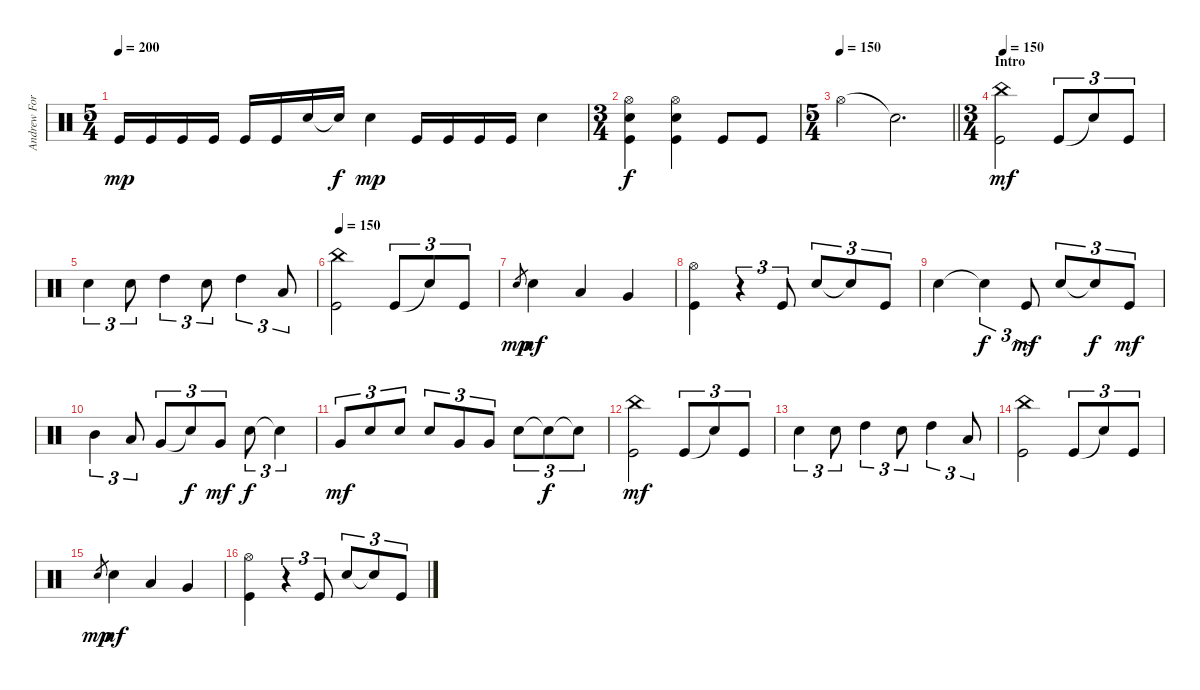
\track ("Andrew Forsman" "Andrew For") {instrument percussion}
\staff {score}
\articulation defaults
\ts (5 4)
\tempo 200
\clef neutral
\ks c "Kick (hit)".16{dy mp} "Kick (hit)".16 "Kick (hit)".16 "Kick (hit)".16 "Kick (hit)".16 "Kick (hit)".16 "Electric Snare (hit)".16 "Snare (hit)"{t}.16{dy f} "Electric Snare (hit)".4{dy mp} "Kick (hit)".16 "Kick (hit)".16 "Kick (hit)".16 "Kick (hit)".16 "Electric Snare (hit)".4
|
\ts (3 4)
("Hi-Hat (open)" "Electric Snare (hit)" "Kick (hit)").4{dy f} ("Hi-Hat (open)" "Electric Snare (hit)" "Kick (hit)").4 "Kick (hit)".8 "Kick (hit)".8 |
\ts (5 4)
\tempo 150
\barLineRight lightlight "Hi-Hat (open)".2 "Snare (hit)"{t}.2{d}
|
\ts (3 4)
\section ("" "Intro ")
\tempo 150
("China (hit)" "Kick (hit)").2{dy mf} "Kick (hit)".8{tu (3 2)} "Snare (hit)"{t}.8{tu (3 2)} "Kick (hit)".8{tu (3 2)} |
"Electric Snare (hit)".4{tu (3 2)} "Electric Snare (hit)".8{tu (3 2)} "High Tom (hit)".4{tu (3 2)} "Electric Snare (hit)".8{tu (3 2)} "High Tom (hit)".4{tu (3 2)} "Low Tom (hit)".8{tu (3 2)} |
\tempo 150
("China (hit)" "Kick (hit)").2 "Kick (hit)".8{tu (3 2)} "Snare (hit)"{t}.8{tu (3 2)} "Kick (hit)".8{tu (3 2)} |
"Electric Snare (hit)".8{gr dy mp} "Electric Snare (hit)".4{dy mf} "Low Tom (hit)".4 "Very Low Tom (hit)".4 |
("Hi-Hat (open)" "Kick (hit)").4 r.4{tu (3 2)} "Kick (hit)".8{tu (3 2)} "Electric Snare (hit)".8{tu (3 2)} "Snare (hit)"{t}.8{tu (3 2)} "Kick (hit)".8{tu (3 2)} |
"Electric Snare (hit)".4 "Snare (hit)"{t}.4{tu (3 2) dy f} "Kick (hit)".8{tu (3 2) dy mf} "Electric Snare (hit)".8{tu (3 2)} "Snare (hit)"{t}.8{tu (3 2) dy f} "Kick (hit)".8{tu (3 2) dy mf} |
"Mid Tom (hit)".4{tu (3 2)} "Low Tom (hit)".8{tu (3 2)} "Very Low Tom (hit)".8{tu (3 2)} "Snare (hit)"{t}.8{tu (3 2) dy f} "Very Low Tom (hit)".8{tu (3 2) dy mf} "Electric Snare (hit)".8{tu (3 2) dy f} "Snare (hit)"{t}.4{tu (3 2)} |
"Very Low Tom (hit)".8{tu (3 2) dy mf} "Electric Snare (hit)".8{tu (3 2)} "Electric Snare (hit)".8{tu (3 2)} "Electric Snare (hit)".8{tu (3 2)} "Very Low Tom (hit)".8{tu (3 2)} "Very Low Tom (hit)".8{tu (3 2)} "Electric Snare (hit)".8{tu (3 2)} "Snare (hit)"{t}.8{tu (3 2) dy f} "Snare (hit)"{t}.8{tu (3 2)} |
("China (hit)" "Kick (hit)").2{dy mf} "Kick (hit)".8{tu (3 2)} "Snare (hit)"{t}.8{tu (3 2)} "Kick (hit)".8{tu (3 2)} |
"Electric Snare (hit)".4{tu (3 2)} "Electric Snare (hit)".8{tu (3 2)} "High Tom (hit)".4{tu (3 2)} "Electric Snare (hit)".8{tu (3 2)} "High Tom (hit)".4{tu (3 2)} "Low Tom (hit)".8{tu (3 2)} |
("China (hit)" "Kick (hit)").2 "Kick (hit)".8{tu (3 2)} "Snare (hit)"{t}.8{tu (3 2)} "Kick (hit)".8{tu (3 2)} |
"Electric Snare (hit)".8{gr dy mp} "Electric Snare (hit)".4{dy mf} "Low Tom (hit)".4 "Very Low Tom (hit)".4 |
("Hi-Hat (open)" "Kick (hit)").4 r.4{tu (3 2)} "Kick (hit)".8{tu (3 2)} "Electric Snare (hit)".8{tu (3 2)} "Snare (hit)"{t}.8{tu (3 2)} "Kick (hit)".8{tu (3 2)}
